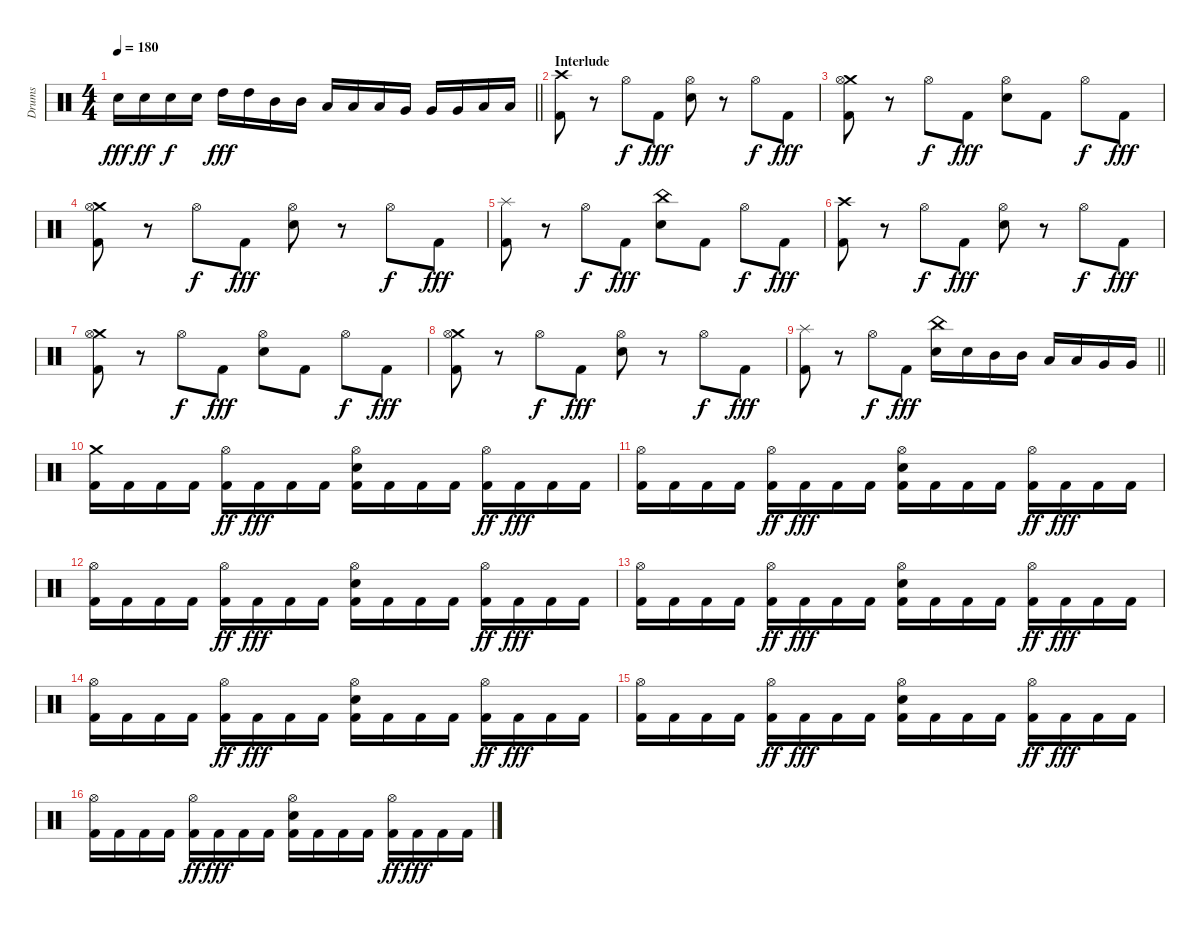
\track ("Drums" "Drums") {instrument percussion}
\staff {score}
\articulation defaults
\ts (4 4)
\tempo 180
\clef neutral
\barLineRight lightlight
\ks c "Electric Snare (hit)".16{dy fff} "Electric Snare (hit)".16{dy ff} "Electric Snare (hit)".16{dy f} "Electric Snare (hit)".16 "High Tom (hit)".16{dy fff} "High Tom (hit)".16 "Mid Tom (hit)".16 "Mid Tom (hit)".16 "Low Tom (hit)".16 "Low Tom (hit)".16 "Low Tom (hit)".16 "Very Low Tom (hit)".16 "Very Low Tom (hit)".16 "Very Low Tom (hit)".16 "Low Floor Tom (hit)".16 "Low Floor Tom (hit)".16
|
\section ("" "Interlude")
("Crash high (hit)" "Kick (hit) 2").8 r.8 "Hi-Hat (open)".8{dy f} "Kick (hit) 2".8{dy fff} ("Hi-Hat (open)" "Electric Snare (hit)").8 r.8 "Hi-Hat (open)".8{dy f} "Kick (hit) 2".8{dy fff} |
("Crash medium (hit)" "Hi-Hat (open)" "Kick (hit) 2").8 r.8 "Hi-Hat (open)".8{dy f} "Kick (hit) 2".8{dy fff} ("Hi-Hat (open)" "Electric Snare (hit)").8 "Kick (hit) 2".8 "Hi-Hat (open)".8{dy f} "Kick (hit) 2".8{dy fff} |
("Crash medium (hit)" "Hi-Hat (open)" "Kick (hit) 2").8 r.8 "Hi-Hat (open)".8{dy f} "Kick (hit) 2".8{dy fff} ("Hi-Hat (open)" "Electric Snare (hit)").8 r.8 "Hi-Hat (open)".8{dy f} "Kick (hit) 2".8{dy fff} |
("Splash (hit)" "Kick (hit) 2").8 r.8 "Hi-Hat (open)".8{dy f} "Kick (hit) 2".8{dy fff} ("China (hit)" "Electric Snare (hit)").8 "Kick (hit) 2".8 "Hi-Hat (open)".8{dy f} "Kick (hit) 2".8{dy fff} |
("Crash high (hit)" "Kick (hit) 2").8 r.8 "Hi-Hat (open)".8{dy f} "Kick (hit) 2".8{dy fff} ("Hi-Hat (open)" "Electric Snare (hit)").8 r.8 "Hi-Hat (open)".8{dy f} "Kick (hit) 2".8{dy fff} |
("Crash medium (hit)" "Hi-Hat (open)" "Kick (hit) 2").8 r.8 "Hi-Hat (open)".8{dy f} "Kick (hit) 2".8{dy fff} ("Hi-Hat (open)" "Electric Snare (hit)").8 "Kick (hit) 2".8 "Hi-Hat (open)".8{dy f} "Kick (hit) 2".8{dy fff} |
("Crash medium (hit)" "Hi-Hat (open)" "Kick (hit) 2").8 r.8 "Hi-Hat (open)".8{dy f} "Kick (hit) 2".8{dy fff} ("Hi-Hat (open)" "Electric Snare (hit)").8 r.8 "Hi-Hat (open)".8{dy f} "Kick (hit) 2".8{dy fff} |
\barLineRight lightlight
("Splash (hit)" "Kick (hit) 2").8 r.8 "Hi-Hat (open)".8{dy f} "Kick (hit) 2".8{dy fff} ("China (hit)" "Electric Snare (hit)").16 "Electric Snare (hit)".16 "Mid Tom (hit)".16 "Mid Tom (hit)".16 "Low Tom (hit)".16 "Low Tom (hit)".16 "Very Low Tom (hit)".16 "Very Low Tom (hit)".16 |
("Crash medium (hit)" "Kick (hit) 2").16 "Kick (hit) 2".16 "Kick (hit) 2".16 "Kick (hit) 2".16 ("Hi-Hat (open)" "Kick (hit) 2").16{dy ff} "Kick (hit) 2".16{dy fff} "Kick (hit) 2".16 "Kick (hit) 2".16 ("Hi-Hat (open)" "Electric Snare (hit)" "Kick (hit) 2").16 "Kick (hit) 2".16 "Kick (hit) 2".16 "Kick (hit) 2".16 ("Hi-Hat (open)" "Kick (hit) 2").16{dy ff} "Kick (hit) 2".16{dy fff} "Kick (hit) 2".16 "Kick (hit) 2".16 |
("Hi-Hat (open)" "Kick (hit) 2").16 "Kick (hit) 2".16 "Kick (hit) 2".16 "Kick (hit) 2".16 ("Hi-Hat (open)" "Kick (hit) 2").16{dy ff} "Kick (hit) 2".16{dy fff} "Kick (hit) 2".16 "Kick (hit) 2".16 ("Hi-Hat (open)" "Electric Snare (hit)" "Kick (hit) 2").16 "Kick (hit) 2".16 "Kick (hit) 2".16 "Kick (hit) 2".16 ("Hi-Hat (open)" "Kick (hit) 2").16{dy ff} "Kick (hit) 2".16{dy fff} "Kick (hit) 2".16 "Kick (hit) 2".16 |
("Hi-Hat (open)" "Kick (hit) 2").16 "Kick (hit) 2".16 "Kick (hit) 2".16 "Kick (hit) 2".16 ("Hi-Hat (open)" "Kick (hit) 2").16{dy ff} "Kick (hit) 2".16{dy fff} "Kick (hit) 2".16 "Kick (hit) 2".16 ("Hi-Hat (open)" "Electric Snare (hit)" "Kick (hit) 2").16 "Kick (hit) 2".16 "Kick (hit) 2".16 "Kick (hit) 2".16 ("Hi-Hat (open)" "Kick (hit) 2").16{dy ff} "Kick (hit) 2".16{dy fff} "Kick (hit) 2".16 "Kick (hit) 2".16 |
("Hi-Hat (open)" "Kick (hit) 2").16 "Kick (hit) 2".16 "Kick (hit) 2".16 "Kick (hit) 2".16 ("Hi-Hat (open)" "Kick (hit) 2").16{dy ff} "Kick (hit) 2".16{dy fff} "Kick (hit) 2".16 "Kick (hit) 2".16 ("Hi-Hat (open)" "Electric Snare (hit)" "Kick (hit) 2").16 "Kick (hit) 2".16 "Kick (hit) 2".16 "Kick (hit) 2".16 ("Hi-Hat (open)" "Kick (hit) 2").16{dy ff} "Kick (hit) 2".16{dy fff} "Kick (hit) 2".16 "Kick (hit) 2".16 |
("Hi-Hat (open)" "Kick (hit) 2").16 "Kick (hit) 2".16 "Kick (hit) 2".16 "Kick (hit) 2".16 ("Hi-Hat (open)" "Kick (hit) 2").16{dy ff} "Kick (hit) 2".16{dy fff} "Kick (hit) 2".16 "Kick (hit) 2".16 ("Hi-Hat (open)" "Electric Snare (hit)" "Kick (hit) 2").16 "Kick (hit) 2".16 "Kick (hit) 2".16 "Kick (hit) 2".16 ("Hi-Hat (open)" "Kick (hit) 2").16{dy ff} "Kick (hit) 2".16{dy fff} "Kick (hit) 2".16 "Kick (hit) 2".16 |
("Hi-Hat (open)" "Kick (hit) 2").16 "Kick (hit) 2".16 "Kick (hit) 2".16 "Kick (hit) 2".16 ("Hi-Hat (open)" "Kick (hit) 2").16{dy ff} "Kick (hit) 2".16{dy fff} "Kick (hit) 2".16 "Kick (hit) 2".16 ("Hi-Hat (open)" "Electric Snare (hit)" "Kick (hit) 2").16 "Kick (hit) 2".16 "Kick (hit) 2".16 "Kick (hit) 2".16 ("Hi-Hat (open)" "Kick (hit) 2").16{dy ff} "Kick (hit) 2".16{dy fff} "Kick (hit) 2".16 "Kick (hit) 2".16 |
("Hi-Hat (open)" "Kick (hit) 2").16 "Kick (hit) 2".16 "Kick (hit) 2".16 "Kick (hit) 2".16 ("Hi-Hat (open)" "Kick (hit) 2").16{dy ff} "Kick (hit) 2".16{dy fff} "Kick (hit) 2".16 "Kick (hit) 2".16 ("Hi-Hat (open)" "Electric Snare (hit)" "Kick (hit) 2").16 "Kick (hit) 2".16 "Kick (hit) 2".16 "Kick (hit) 2".16 ("Hi-Hat (open)" "Kick (hit) 2").16{dy ff} "Kick (hit) 2".16{dy fff} "Kick (hit) 2".16 "Kick (hit) 2".16
